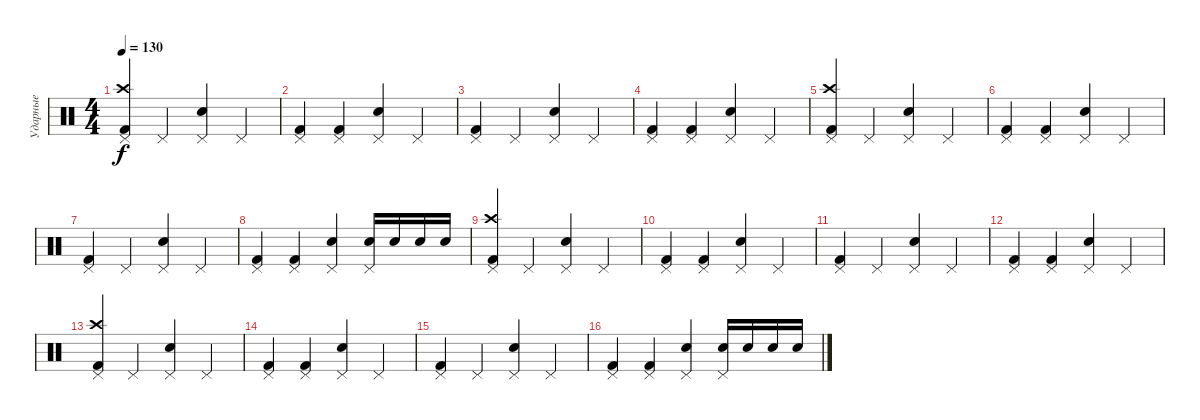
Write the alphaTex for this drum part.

\track ("Ударные" "Ударные") {instrument percussion}
\staff {score}
\articulation defaults
\ts (4 4)
\tempo 130
\clef neutral
\ks c
("Pedal Hi-Hat (hit)" "Crash high (hit)" "Kick (hit) 2").4{dy f} "Pedal Hi-Hat (hit)".4 ("Pedal Hi-Hat (hit)" "Electric Snare (hit)").4 "Pedal Hi-Hat (hit)".4 |
("Pedal Hi-Hat (hit)" "Kick (hit) 2").4 ("Pedal Hi-Hat (hit)" "Kick (hit) 2").4 ("Pedal Hi-Hat (hit)" "Electric Snare (hit)").4 "Pedal Hi-Hat (hit)".4 |
("Pedal Hi-Hat (hit)" "Kick (hit) 2").4 "Pedal Hi-Hat (hit)".4 ("Pedal Hi-Hat (hit)" "Electric Snare (hit)").4 "Pedal Hi-Hat (hit)".4 |
("Pedal Hi-Hat (hit)" "Kick (hit) 2").4 ("Pedal Hi-Hat (hit)" "Kick (hit) 2").4 ("Pedal Hi-Hat (hit)" "Electric Snare (hit)").4 "Pedal Hi-Hat (hit)".4 |
("Pedal Hi-Hat (hit)" "Crash high (hit)" "Kick (hit) 2").4 "Pedal Hi-Hat (hit)".4 ("Pedal Hi-Hat (hit)" "Electric Snare (hit)").4 "Pedal Hi-Hat (hit)".4 |
("Pedal Hi-Hat (hit)" "Kick (hit) 2").4 ("Pedal Hi-Hat (hit)" "Kick (hit) 2").4 ("Pedal Hi-Hat (hit)" "Electric Snare (hit)").4 "Pedal Hi-Hat (hit)".4 |
("Pedal Hi-Hat (hit)" "Kick (hit) 2").4 "Pedal Hi-Hat (hit)".4 ("Pedal Hi-Hat (hit)" "Electric Snare (hit)").4 "Pedal Hi-Hat (hit)".4 |
("Pedal Hi-Hat (hit)" "Kick (hit) 2").4 ("Pedal Hi-Hat (hit)" "Kick (hit) 2").4 ("Pedal Hi-Hat (hit)" "Electric Snare (hit)").4 ("Pedal Hi-Hat (hit)" "Electric Snare (hit)").16 "Electric Snare (hit)".16 "Electric Snare (hit)".16 "Electric Snare (hit)".16 |
("Pedal Hi-Hat (hit)" "Crash high (hit)" "Kick (hit) 2").4 "Pedal Hi-Hat (hit)".4 ("Pedal Hi-Hat (hit)" "Electric Snare (hit)").4 "Pedal Hi-Hat (hit)".4 |
("Pedal Hi-Hat (hit)" "Kick (hit) 2").4 ("Pedal Hi-Hat (hit)" "Kick (hit) 2").4 ("Pedal Hi-Hat (hit)" "Electric Snare (hit)").4 "Pedal Hi-Hat (hit)".4 |
("Pedal Hi-Hat (hit)" "Kick (hit) 2").4 "Pedal Hi-Hat (hit)".4 ("Pedal Hi-Hat (hit)" "Electric Snare (hit)").4 "Pedal Hi-Hat (hit)".4 |
("Pedal Hi-Hat (hit)" "Kick (hit) 2").4 ("Pedal Hi-Hat (hit)" "Kick (hit) 2").4 ("Pedal Hi-Hat (hit)" "Electric Snare (hit)").4 "Pedal Hi-Hat (hit)".4 |
("Pedal Hi-Hat (hit)" "Crash high (hit)" "Kick (hit) 2").4 "Pedal Hi-Hat (hit)".4 ("Pedal Hi-Hat (hit)" "Electric Snare (hit)").4 "Pedal Hi-Hat (hit)".4 |
("Pedal Hi-Hat (hit)" "Kick (hit) 2").4 ("Pedal Hi-Hat (hit)" "Kick (hit) 2").4 ("Pedal Hi-Hat (hit)" "Electric Snare (hit)").4 "Pedal Hi-Hat (hit)".4 |
("Pedal Hi-Hat (hit)" "Kick (hit) 2").4 "Pedal Hi-Hat (hit)".4 ("Pedal Hi-Hat (hit)" "Electric Snare (hit)").4 "Pedal Hi-Hat (hit)".4 |
("Pedal Hi-Hat (hit)" "Kick (hit) 2").4 ("Pedal Hi-Hat (hit)" "Kick (hit) 2").4 ("Pedal Hi-Hat (hit)" "Electric Snare (hit)").4 ("Pedal Hi-Hat (hit)" "Electric Snare (hit)").16 "Electric Snare (hit)".16 "Electric Snare (hit)".16 "Electric Snare (hit)".16
